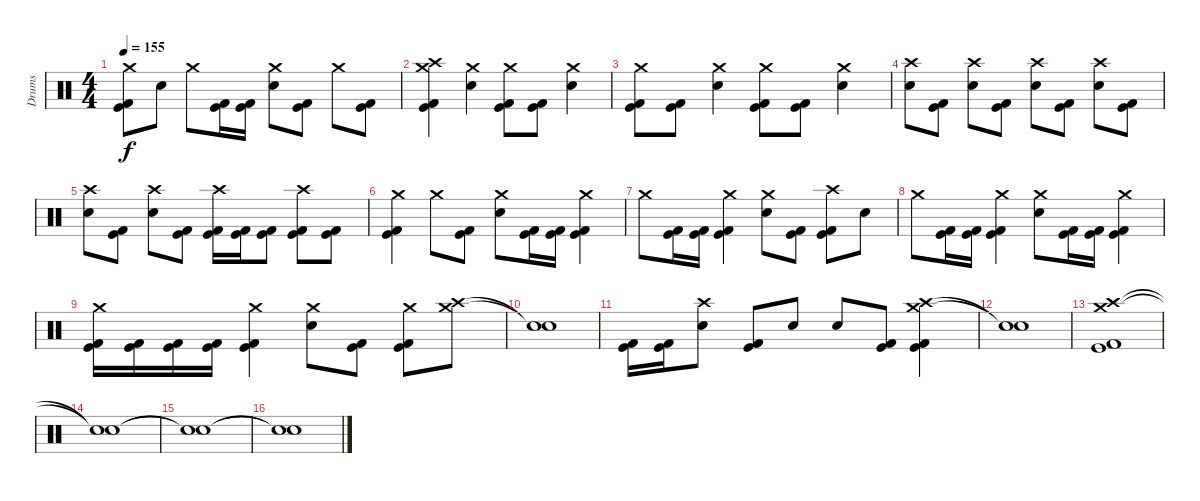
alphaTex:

\track ("Drums" "Drums") {instrument percussion}
\staff {score}
\articulation defaults
\ts (4 4)
\tempo 155
\clef neutral
\ks c
("Crash medium (hit)" "Kick (hit)" "Kick (hit) 2").8{dy f} "Electric Snare (hit)".8 "Crash medium (hit)".8 ("Kick (hit)" "Kick (hit) 2").16 ("Kick (hit)" "Kick (hit) 2").16 ("Crash medium (hit)" "Electric Snare (hit)").8 ("Kick (hit)" "Kick (hit) 2").8 "Crash medium (hit)".8 ("Kick (hit)" "Kick (hit) 2").8 |
("Crash medium (hit)" "Crash high (hit)" "Kick (hit)" "Kick (hit) 2").4 ("Crash medium (hit)" "Electric Snare (hit)").4 ("Crash medium (hit)" "Kick (hit)" "Kick (hit) 2").8 ("Kick (hit)" "Kick (hit) 2").8 ("Crash medium (hit)" "Electric Snare (hit)").4 |
("Crash medium (hit)" "Kick (hit)" "Kick (hit) 2").8 ("Kick (hit)" "Kick (hit) 2").8 ("Crash medium (hit)" "Electric Snare (hit)").4 ("Crash medium (hit)" "Kick (hit)" "Kick (hit) 2").8 ("Kick (hit)" "Kick (hit) 2").8 ("Crash medium (hit)" "Electric Snare (hit)").4 |
("Crash high (hit)" "Electric Snare (hit)").8 ("Kick (hit)" "Kick (hit) 2").8 ("Crash high (hit)" "Electric Snare (hit)").8 ("Kick (hit)" "Kick (hit) 2").8 ("Crash high (hit)" "Electric Snare (hit)").8 ("Kick (hit)" "Kick (hit) 2").8 ("Crash high (hit)" "Electric Snare (hit)").8 ("Kick (hit)" "Kick (hit) 2").8 |
("Crash high (hit)" "Electric Snare (hit)").8 ("Kick (hit)" "Kick (hit) 2").8 ("Crash high (hit)" "Electric Snare (hit)").8 ("Kick (hit)" "Kick (hit) 2").8 ("Crash high (hit)" "Kick (hit)" "Kick (hit) 2").16 ("Kick (hit)" "Kick (hit) 2").16 ("Kick (hit)" "Kick (hit) 2").8 ("Crash high (hit)" "Kick (hit)" "Kick (hit) 2").8 ("Kick (hit)" "Kick (hit) 2").8 |
("Crash medium (hit)" "Kick (hit)" "Kick (hit) 2").4 "Crash medium (hit)".8 ("Kick (hit)" "Kick (hit) 2").8 ("Crash medium (hit)" "Electric Snare (hit)").8 ("Kick (hit)" "Kick (hit) 2").16 ("Kick (hit)" "Kick (hit) 2").16 ("Crash medium (hit)" "Kick (hit)" "Kick (hit) 2").4 |
"Crash medium (hit)".8 ("Kick (hit)" "Kick (hit) 2").16 ("Kick (hit)" "Kick (hit) 2").16 ("Crash medium (hit)" "Kick (hit)" "Kick (hit) 2").4 ("Crash medium (hit)" "Electric Snare (hit)").8 ("Kick (hit)" "Kick (hit) 2").8 ("Crash high (hit)" "Kick (hit)" "Kick (hit) 2").8 "Electric Snare (hit)".8 |
"Crash medium (hit)".8 ("Kick (hit)" "Kick (hit) 2").16 ("Kick (hit)" "Kick (hit) 2").16 ("Crash medium (hit)" "Kick (hit)" "Kick (hit) 2").4 ("Crash medium (hit)" "Electric Snare (hit)").8 ("Kick (hit)" "Kick (hit) 2").16 ("Kick (hit)" "Kick (hit) 2").16 ("Crash medium (hit)" "Kick (hit)" "Kick (hit) 2").4 |
("Crash medium (hit)" "Kick (hit)" "Kick (hit) 2").16 ("Kick (hit)" "Kick (hit) 2").16 ("Kick (hit)" "Kick (hit) 2").16 ("Kick (hit)" "Kick (hit) 2").16 ("Crash medium (hit)" "Kick (hit)" "Kick (hit) 2").4 ("Crash medium (hit)" "Electric Snare (hit)").8 ("Kick (hit)" "Kick (hit) 2").8 ("Crash medium (hit)" "Kick (hit)" "Kick (hit) 2").8 ("Crash high (hit)" "Crash medium (hit)").8 |
("Snare (hit)"{t} "Snare (hit)"{t}).1 |
("Kick (hit)" "Kick (hit) 2").16 ("Kick (hit)" "Kick (hit) 2").16 ("Crash high (hit)" "Electric Snare (hit)").8 ("Kick (hit)" "Kick (hit) 2").8 "Electric Snare (hit)".8 "Electric Snare (hit)".8 ("Kick (hit)" "Kick (hit) 2").8 ("Crash medium (hit)" "Crash high (hit)" "Kick (hit)" "Kick (hit) 2").4 |
("Snare (hit)"{t} "Snare (hit)"{t}).1 |
("Crash high (hit)" "Crash medium (hit)" "Kick (hit)" "Kick (hit) 2").1 |
("Snare (hit)"{t} "Snare (hit)"{t}).1 |
("Snare (hit)"{t} "Snare (hit)"{t}).1 |
("Snare (hit)"{t} "Snare (hit)"{t}).1
